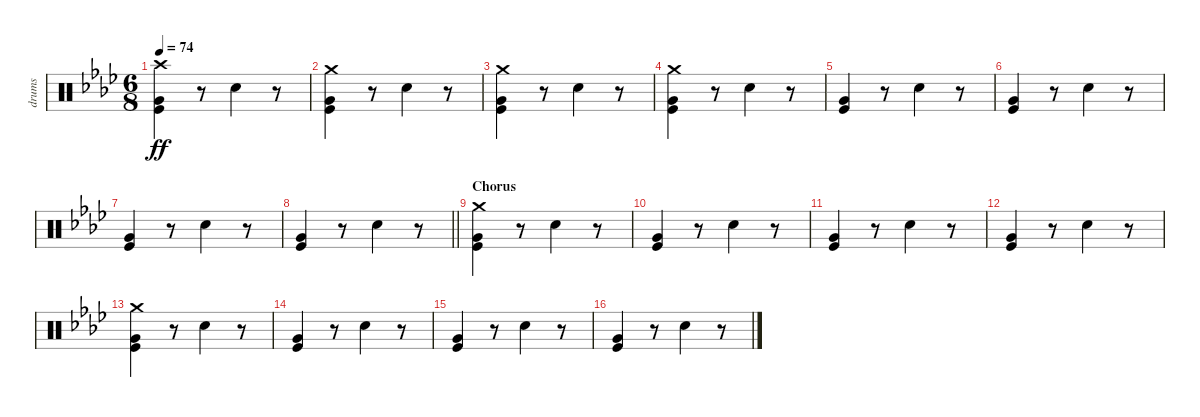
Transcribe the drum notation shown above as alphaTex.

\track ("drums" "drums") {instrument percussion}
\staff {score}
\articulation defaults
\ts (6 8)
\tempo 74
\clef neutral
\ks ab
("Crash high (hit)" "Very Low Tom (hit)" "Kick (hit)").4{dy ff} r.8 "Electric Snare (hit)".4 r.8 |
("Crash medium (hit)" "Very Low Tom (hit)" "Kick (hit)").4 r.8 "Electric Snare (hit)".4 r.8 |
("Crash medium (hit)" "Very Low Tom (hit)" "Kick (hit)").4 r.8 "Electric Snare (hit)".4 r.8 |
("Crash medium (hit)" "Very Low Tom (hit)" "Kick (hit)").4 r.8 "Electric Snare (hit)".4 r.8 |
("Very Low Tom (hit)" "Kick (hit)").4 r.8 "Electric Snare (hit)".4 r.8 |
("Very Low Tom (hit)" "Kick (hit)").4 r.8 "Electric Snare (hit)".4 r.8 |
("Very Low Tom (hit)" "Kick (hit)").4 r.8 "Electric Snare (hit)".4 r.8 |
\barLineRight lightlight
("Very Low Tom (hit)" "Kick (hit)").4 r.8 "Electric Snare (hit)".4 r.8 |
\section ("" "Chorus")
("Crash medium (hit)" "Very Low Tom (hit)" "Kick (hit)").4 r.8 "Electric Snare (hit)".4 r.8 |
("Very Low Tom (hit)" "Kick (hit)").4 r.8 "Electric Snare (hit)".4 r.8 |
("Very Low Tom (hit)" "Kick (hit)").4 r.8 "Electric Snare (hit)".4 r.8 |
("Very Low Tom (hit)" "Kick (hit)").4 r.8 "Electric Snare (hit)".4 r.8 |
("Crash medium (hit)" "Very Low Tom (hit)" "Kick (hit)").4 r.8 "Electric Snare (hit)".4 r.8 |
("Very Low Tom (hit)" "Kick (hit)").4 r.8 "Electric Snare (hit)".4 r.8 |
("Very Low Tom (hit)" "Kick (hit)").4 r.8 "Electric Snare (hit)".4 r.8 |
("Very Low Tom (hit)" "Kick (hit)").4 r.8 "Electric Snare (hit)".4 r.8
